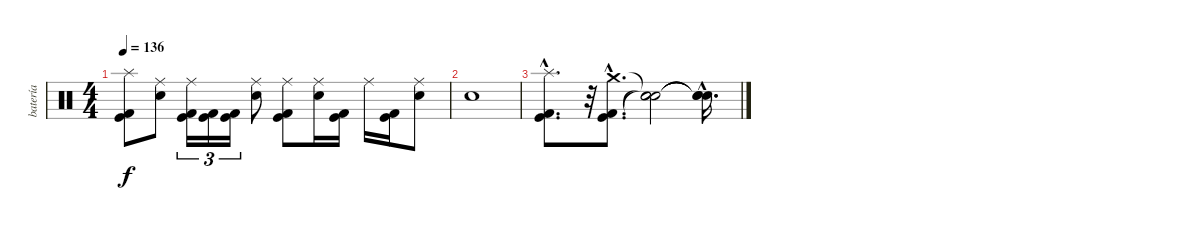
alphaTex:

\track ("batería" "batería") {instrument percussion}
\staff {score}
\articulation defaults
\ts (4 4)
\tempo 136
\clef neutral
\ks c
("Kick (hit) 2" "Splash (hit)" "Kick (hit)").8{dy f} ("Snare (hit) 2" "Ride (middle)").8 ("Kick (hit) 2" "Ride (middle)" "Kick (hit)").16{tu (3 2)} ("Kick (hit) 2" "Kick (hit)").16{tu (3 2)} ("Kick (hit) 2" "Kick (hit)").16{tu (3 2)} ("Snare (hit) 2" "Ride (middle)").8 ("Kick (hit) 2" "Ride (middle)" "Kick (hit)").8 ("Snare (hit) 2" "Ride (middle)").16 ("Kick (hit) 2" "Kick (hit)").16 "Ride (middle)".16 ("Kick (hit) 2" "Kick (hit)").16 ("Snare (hit) 2" "Ride (middle)").8 |
"Snare (hit) 2".1 |
("Splash (hit)"{hac} "Kick (hit) 2"{hac} "Kick (hit)"{hac}).8{d} r.32 ("Crash medium (hit)"{hac} "Kick (hit) 2"{hac} "Kick (hit)"{hac}).8{d} ("Snare (hit)"{t} "Snare (hit)"{t} "Snare (hit)"{t}).2 ("Snare (hit)"{hac t} "Snare (hit)"{hac t} "Snare (hit)"{hac t}).16{d}
